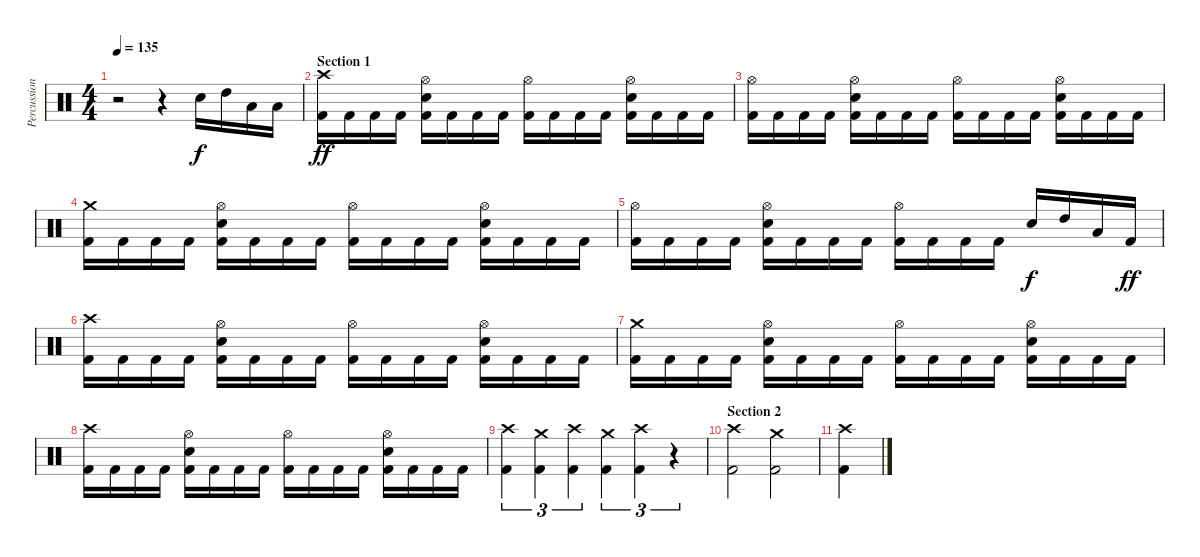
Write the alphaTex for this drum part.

\track ("Percussion" "Percussion") {instrument percussion}
\staff {score}
\articulation defaults
\ts (4 4)
\tempo 135
\clef neutral
\ks c
r.2{dy f} r.4 "Electric Snare (hit)".16 "High Tom (hit)".16 "Low Tom (hit)".16 "Low Floor Tom (hit)".16 |
\section ("" "Section 1")
("Crash high (hit)" "Kick (hit) 2").16{dy ff} "Kick (hit) 2".16 "Kick (hit) 2".16 "Kick (hit) 2".16 ("Hi-Hat (open)" "Electric Snare (hit)" "Kick (hit) 2").16 "Kick (hit) 2".16 "Kick (hit) 2".16 "Kick (hit) 2".16 ("Hi-Hat (open)" "Kick (hit) 2").16 "Kick (hit) 2".16 "Kick (hit) 2".16 "Kick (hit) 2".16 ("Hi-Hat (open)" "Electric Snare (hit)" "Kick (hit) 2").16 "Kick (hit) 2".16 "Kick (hit) 2".16 "Kick (hit) 2".16 |
("Hi-Hat (open)" "Kick (hit) 2").16 "Kick (hit) 2".16 "Kick (hit) 2".16 "Kick (hit) 2".16 ("Hi-Hat (open)" "Electric Snare (hit)" "Kick (hit) 2").16 "Kick (hit) 2".16 "Kick (hit) 2".16 "Kick (hit) 2".16 ("Hi-Hat (open)" "Kick (hit) 2").16 "Kick (hit) 2".16 "Kick (hit) 2".16 "Kick (hit) 2".16 ("Hi-Hat (open)" "Electric Snare (hit)" "Kick (hit) 2").16 "Kick (hit) 2".16 "Kick (hit) 2".16 "Kick (hit) 2".16 |
("Crash medium (hit)" "Kick (hit) 2").16 "Kick (hit) 2".16 "Kick (hit) 2".16 "Kick (hit) 2".16 ("Hi-Hat (open)" "Electric Snare (hit)" "Kick (hit) 2").16 "Kick (hit) 2".16 "Kick (hit) 2".16 "Kick (hit) 2".16 ("Hi-Hat (open)" "Kick (hit) 2").16 "Kick (hit) 2".16 "Kick (hit) 2".16 "Kick (hit) 2".16 ("Hi-Hat (open)" "Electric Snare (hit)" "Kick (hit) 2").16 "Kick (hit) 2".16 "Kick (hit) 2".16 "Kick (hit) 2".16 |
("Hi-Hat (open)" "Kick (hit) 2").16 "Kick (hit) 2".16 "Kick (hit) 2".16 "Kick (hit) 2".16 ("Hi-Hat (open)" "Electric Snare (hit)" "Kick (hit) 2").16 "Kick (hit) 2".16 "Kick (hit) 2".16 "Kick (hit) 2".16 ("Hi-Hat (open)" "Kick (hit) 2").16 "Kick (hit) 2".16 "Kick (hit) 2".16 "Kick (hit) 2".16 "Electric Snare (hit)".16{dy f} "High Tom (hit)".16 "Low Tom (hit)".16 "Kick (hit) 2".16{dy ff} |
("Crash high (hit)" "Kick (hit) 2").16 "Kick (hit) 2".16 "Kick (hit) 2".16 "Kick (hit) 2".16 ("Hi-Hat (open)" "Electric Snare (hit)" "Kick (hit) 2").16 "Kick (hit) 2".16 "Kick (hit) 2".16 "Kick (hit) 2".16 ("Hi-Hat (open)" "Kick (hit) 2").16 "Kick (hit) 2".16 "Kick (hit) 2".16 "Kick (hit) 2".16 ("Hi-Hat (open)" "Electric Snare (hit)" "Kick (hit) 2").16 "Kick (hit) 2".16 "Kick (hit) 2".16 "Kick (hit) 2".16 |
("Crash medium (hit)" "Kick (hit) 2").16 "Kick (hit) 2".16 "Kick (hit) 2".16 "Kick (hit) 2".16 ("Hi-Hat (open)" "Electric Snare (hit)" "Kick (hit) 2").16 "Kick (hit) 2".16 "Kick (hit) 2".16 "Kick (hit) 2".16 ("Hi-Hat (open)" "Kick (hit) 2").16 "Kick (hit) 2".16 "Kick (hit) 2".16 "Kick (hit) 2".16 ("Hi-Hat (open)" "Electric Snare (hit)" "Kick (hit) 2").16 "Kick (hit) 2".16 "Kick (hit) 2".16 "Kick (hit) 2".16 |
("Crash high (hit)" "Kick (hit) 2").16 "Kick (hit) 2".16 "Kick (hit) 2".16 "Kick (hit) 2".16 ("Hi-Hat (open)" "Electric Snare (hit)" "Kick (hit) 2").16 "Kick (hit) 2".16 "Kick (hit) 2".16 "Kick (hit) 2".16 ("Hi-Hat (open)" "Kick (hit) 2").16 "Kick (hit) 2".16 "Kick (hit) 2".16 "Kick (hit) 2".16 ("Hi-Hat (open)" "Electric Snare (hit)" "Kick (hit) 2").16 "Kick (hit) 2".16 "Kick (hit) 2".16 "Kick (hit) 2".16 |
("Crash high (hit)" "Kick (hit) 2").4{tu (3 2)} ("Crash medium (hit)" "Kick (hit) 2").4{tu (3 2)} ("Crash high (hit)" "Kick (hit) 2").4{tu (3 2)} ("Crash medium (hit)" "Kick (hit) 2").4{tu (3 2)} ("Crash high (hit)" "Kick (hit) 2").4{tu (3 2)} r.4{tu (3 2)} |
\section ("" "Section 2")
("Crash high (hit)" "Kick (hit) 2").2 ("Crash medium (hit)" "Kick (hit) 2").2 |
("Crash high (hit)" "Kick (hit) 2").4
